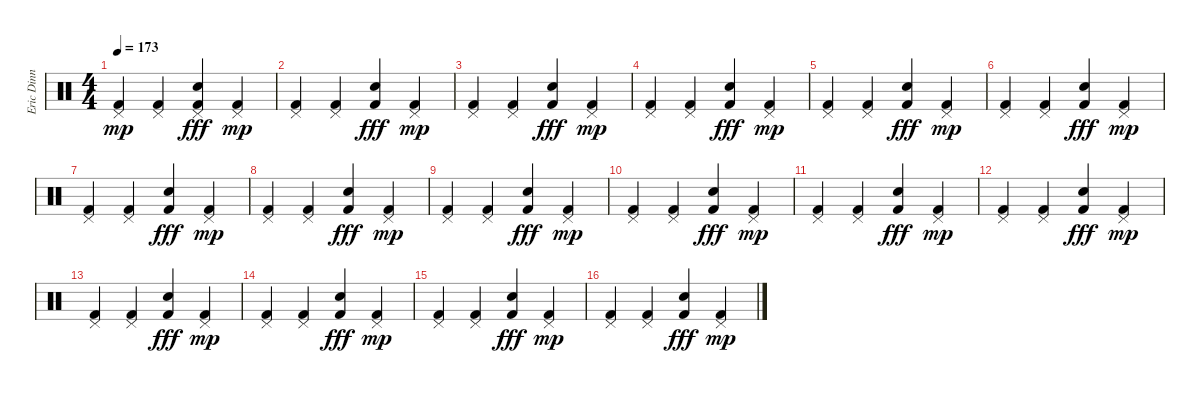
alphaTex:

\track ("Eric Dinn" "Eric Dinn") {instrument percussion}
\staff {score}
\articulation defaults
\ts (4 4)
\tempo 173
\clef neutral
\ks c
("Pedal Hi-Hat (hit)" "Kick (hit) 2").4{dy mp} ("Pedal Hi-Hat (hit)" "Kick (hit) 2").4 ("Pedal Hi-Hat (hit)" "Snare (hit) 2" "Kick (hit) 2").4{dy fff} ("Pedal Hi-Hat (hit)" "Kick (hit) 2").4{dy mp} |
("Pedal Hi-Hat (hit)" "Kick (hit) 2").4 ("Pedal Hi-Hat (hit)" "Kick (hit) 2").4 ("Snare (hit) 2" "Kick (hit) 2").4{dy fff} ("Pedal Hi-Hat (hit)" "Kick (hit) 2").4{dy mp} |
("Pedal Hi-Hat (hit)" "Kick (hit) 2").4 ("Pedal Hi-Hat (hit)" "Kick (hit) 2").4 ("Snare (hit) 2" "Kick (hit) 2").4{dy fff} ("Pedal Hi-Hat (hit)" "Kick (hit) 2").4{dy mp} |
("Pedal Hi-Hat (hit)" "Kick (hit) 2").4 ("Pedal Hi-Hat (hit)" "Kick (hit) 2").4 ("Snare (hit) 2" "Kick (hit) 2").4{dy fff} ("Pedal Hi-Hat (hit)" "Kick (hit) 2").4{dy mp} |
("Pedal Hi-Hat (hit)" "Kick (hit) 2").4 ("Pedal Hi-Hat (hit)" "Kick (hit) 2").4 ("Snare (hit) 2" "Kick (hit) 2").4{dy fff} ("Pedal Hi-Hat (hit)" "Kick (hit) 2").4{dy mp} |
("Pedal Hi-Hat (hit)" "Kick (hit) 2").4 ("Pedal Hi-Hat (hit)" "Kick (hit) 2").4 ("Snare (hit) 2" "Kick (hit) 2").4{dy fff} ("Pedal Hi-Hat (hit)" "Kick (hit) 2").4{dy mp} |
("Pedal Hi-Hat (hit)" "Kick (hit) 2").4 ("Pedal Hi-Hat (hit)" "Kick (hit) 2").4 ("Snare (hit) 2" "Kick (hit) 2").4{dy fff} ("Pedal Hi-Hat (hit)" "Kick (hit) 2").4{dy mp} |
("Pedal Hi-Hat (hit)" "Kick (hit) 2").4 ("Pedal Hi-Hat (hit)" "Kick (hit) 2").4 ("Snare (hit) 2" "Kick (hit) 2").4{dy fff} ("Pedal Hi-Hat (hit)" "Kick (hit) 2").4{dy mp} |
("Pedal Hi-Hat (hit)" "Kick (hit) 2").4 ("Pedal Hi-Hat (hit)" "Kick (hit) 2").4 ("Snare (hit) 2" "Kick (hit) 2").4{dy fff} ("Pedal Hi-Hat (hit)" "Kick (hit) 2").4{dy mp} |
("Pedal Hi-Hat (hit)" "Kick (hit) 2").4 ("Pedal Hi-Hat (hit)" "Kick (hit) 2").4 ("Snare (hit) 2" "Kick (hit) 2").4{dy fff} ("Pedal Hi-Hat (hit)" "Kick (hit) 2").4{dy mp} |
("Pedal Hi-Hat (hit)" "Kick (hit) 2").4 ("Pedal Hi-Hat (hit)" "Kick (hit) 2").4 ("Snare (hit) 2" "Kick (hit) 2").4{dy fff} ("Pedal Hi-Hat (hit)" "Kick (hit) 2").4{dy mp} |
("Pedal Hi-Hat (hit)" "Kick (hit) 2").4 ("Pedal Hi-Hat (hit)" "Kick (hit) 2").4 ("Snare (hit) 2" "Kick (hit) 2").4{dy fff} ("Pedal Hi-Hat (hit)" "Kick (hit) 2").4{dy mp} |
("Pedal Hi-Hat (hit)" "Kick (hit) 2").4 ("Pedal Hi-Hat (hit)" "Kick (hit) 2").4 ("Snare (hit) 2" "Kick (hit) 2").4{dy fff} ("Pedal Hi-Hat (hit)" "Kick (hit) 2").4{dy mp} |
("Pedal Hi-Hat (hit)" "Kick (hit) 2").4 ("Pedal Hi-Hat (hit)" "Kick (hit) 2").4 ("Snare (hit) 2" "Kick (hit) 2").4{dy fff} ("Pedal Hi-Hat (hit)" "Kick (hit) 2").4{dy mp} |
("Pedal Hi-Hat (hit)" "Kick (hit) 2").4 ("Pedal Hi-Hat (hit)" "Kick (hit) 2").4 ("Snare (hit) 2" "Kick (hit) 2").4{dy fff} ("Pedal Hi-Hat (hit)" "Kick (hit) 2").4{dy mp} |
("Pedal Hi-Hat (hit)" "Kick (hit) 2").4 ("Pedal Hi-Hat (hit)" "Kick (hit) 2").4 ("Snare (hit) 2" "Kick (hit) 2").4{dy fff} ("Pedal Hi-Hat (hit)" "Kick (hit) 2").4{dy mp}
